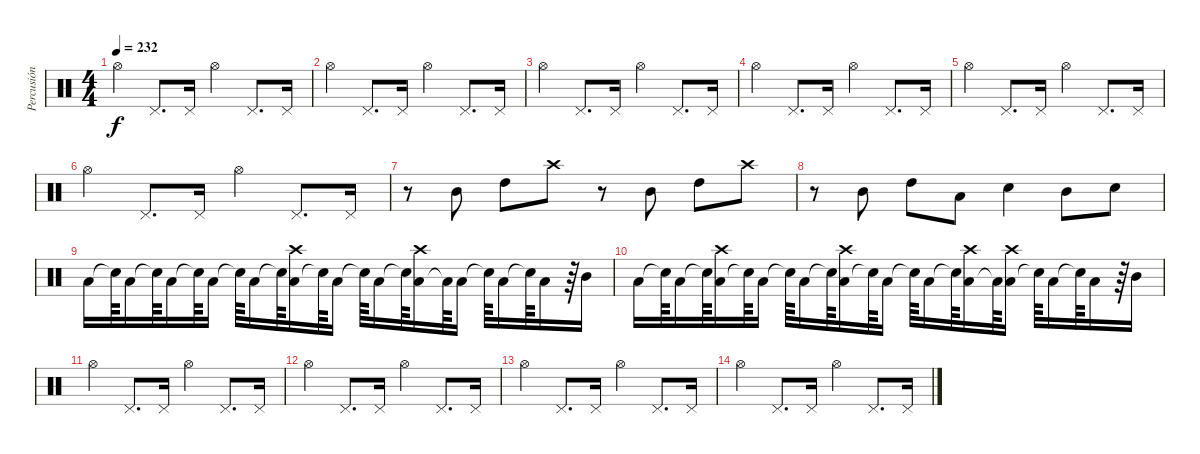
\track ("Percusión" "Percusión") {instrument percussion}
\staff {score}
\articulation defaults
\ts (4 4)
\tempo 232
\clef neutral
\ks c "Hi-Hat (open)".4{dy f} "Pedal Hi-Hat (hit)".8{d} "Pedal Hi-Hat (hit)".16 "Hi-Hat (open)".4 "Pedal Hi-Hat (hit)".8{d} "Pedal Hi-Hat (hit)".16
|
"Hi-Hat (open)".4 "Pedal Hi-Hat (hit)".8{d} "Pedal Hi-Hat (hit)".16 "Hi-Hat (open)".4 "Pedal Hi-Hat (hit)".8{d} "Pedal Hi-Hat (hit)".16 |
"Hi-Hat (open)".4 "Pedal Hi-Hat (hit)".8{d} "Pedal Hi-Hat (hit)".16 "Hi-Hat (open)".4 "Pedal Hi-Hat (hit)".8{d} "Pedal Hi-Hat (hit)".16 |
"Hi-Hat (open)".4 "Pedal Hi-Hat (hit)".8{d} "Pedal Hi-Hat (hit)".16 "Hi-Hat (open)".4 "Pedal Hi-Hat (hit)".8{d} "Pedal Hi-Hat (hit)".16 |
"Hi-Hat (open)".4 "Pedal Hi-Hat (hit)".8{d} "Pedal Hi-Hat (hit)".16 "Hi-Hat (open)".4 "Pedal Hi-Hat (hit)".8{d} "Pedal Hi-Hat (hit)".16 |
"Hi-Hat (open)".4 "Pedal Hi-Hat (hit)".8{d} "Pedal Hi-Hat (hit)".16 "Hi-Hat (open)".4 "Pedal Hi-Hat (hit)".8{d} "Pedal Hi-Hat (hit)".16 |
r.8 "Mid Tom (hit)".8 "High Tom (hit)".8 "Crash high (hit)".8 r.8 "Mid Tom (hit)".8 "High Tom (hit)".8 "Crash high (hit)".8 |
r.8 "Mid Tom (hit)".8 "High Tom (hit)".8 "Low Floor Tom (hit)".8 "Snare (hit) 2".4 "Mid Tom (hit)".8 "Snare (hit) 2".8 |
"Low Floor Tom (hit)".16 "Snare (hit)"{t}.64 "Low Floor Tom (hit)".16 "Snare (hit)"{t}.64 "Low Floor Tom (hit)".16 "Snare (hit)"{t}.64 "Low Floor Tom (hit)".16 "Snare (hit)"{t}.64 "Low Floor Tom (hit)".16 "Snare (hit)"{t}.64 ("Low Floor Tom (hit)" "Crash high (hit)").16 "Snare (hit)"{t}.64 "Low Floor Tom (hit)".16 "Snare (hit)"{t}.64 "Low Floor Tom (hit)".16 "Snare (hit)"{t}.64 ("Low Floor Tom (hit)" "Crash high (hit)").16 "Low Floor Tom (hit)"{t}.64 "Low Floor Tom (hit)".16 "Snare (hit)"{t}.64 "Low Floor Tom (hit)".16 "Snare (hit)"{t}.64 "Low Floor Tom (hit)".16 r.64 "Mid Tom (hit)".16 |
"Low Floor Tom (hit)".16 "Snare (hit)"{t}.64 "Low Floor Tom (hit)".16 "Snare (hit)"{t}.64 ("Low Floor Tom (hit)" "Crash high (hit)").16 "Snare (hit)"{t}.64 "Low Floor Tom (hit)".16 "Snare (hit)"{t}.64 "Low Floor Tom (hit)".16 "Snare (hit)"{t}.64 ("Low Floor Tom (hit)" "Crash high (hit)").16 "Snare (hit)"{t}.64 "Low Floor Tom (hit)".16 "Snare (hit)"{t}.64 "Low Floor Tom (hit)".16 "Snare (hit)"{t}.64 ("Low Floor Tom (hit)" "Crash high (hit)").16 "Low Floor Tom (hit)"{t}.64 ("Low Floor Tom (hit)" "Crash high (hit)").16 "Snare (hit)"{t}.64 "Low Floor Tom (hit)".16 "Snare (hit)"{t}.64 "Low Floor Tom (hit)".16 r.64 "Mid Tom (hit)".16 |
"Hi-Hat (open)".4 "Pedal Hi-Hat (hit)".8{d} "Pedal Hi-Hat (hit)".16 "Hi-Hat (open)".4 "Pedal Hi-Hat (hit)".8{d} "Pedal Hi-Hat (hit)".16 |
"Hi-Hat (open)".4 "Pedal Hi-Hat (hit)".8{d} "Pedal Hi-Hat (hit)".16 "Hi-Hat (open)".4 "Pedal Hi-Hat (hit)".8{d} "Pedal Hi-Hat (hit)".16 |
"Hi-Hat (open)".4 "Pedal Hi-Hat (hit)".8{d} "Pedal Hi-Hat (hit)".16 "Hi-Hat (open)".4 "Pedal Hi-Hat (hit)".8{d} "Pedal Hi-Hat (hit)".16 |
"Hi-Hat (open)".4 "Pedal Hi-Hat (hit)".8{d} "Pedal Hi-Hat (hit)".16 "Hi-Hat (open)".4 "Pedal Hi-Hat (hit)".8{d} "Pedal Hi-Hat (hit)".16
